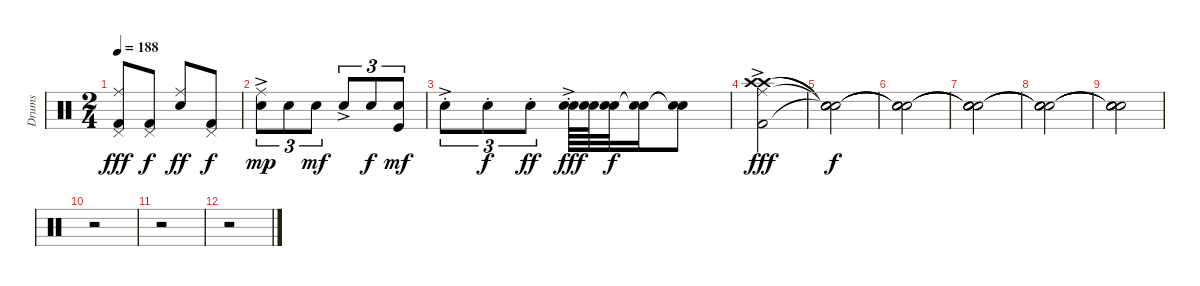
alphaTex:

\track ("Drums" "Drums") {instrument percussion}
\staff {score}
\articulation defaults
\ts (2 4)
\tempo 188
\clef neutral
\ks c
("Ride (middle)" "Pedal Hi-Hat (hit)" "Kick (hit) 2").8{dy fff} ("Pedal Hi-Hat (hit)" "Kick (hit) 2").8{dy f} ("Ride (middle)" "Snare (hit) 2").8{dy ff} ("Pedal Hi-Hat (hit)" "Kick (hit) 2").8{dy f} |
("Ride (middle)" "Snare (hit) 2"{ac}).8{tu (3 2) dy mp} "Snare (hit) 2".8{tu (3 2)} "Snare (hit) 2".8{tu (3 2) dy mf} "Snare (hit) 2"{ac}.8{tu (3 2)} "Snare (hit) 2".8{tu (3 2) dy f} ("Snare (hit) 2" "Kick (hit)").8{tu (3 2) dy mf} |
"Snare (hit) 2"{ac st}.8{tu (3 2)} "Snare (hit) 2"{st}.8{tu (3 2) dy f} "Snare (hit) 2"{st}.8{tu (3 2) dy ff} ("Snare (hit) 2"{ac st} "Snare (hit) 2").64{dy fff} ("Snare (hit) 2" "Snare (hit) 2").64 ("Snare (hit)"{t} "Snare (hit)"{t}).32{dy f} ("Snare (hit)"{t} "Snare (hit)"{t}).16 ("Snare (hit)"{t} "Snare (hit)"{t}).8 |
("Crash high (hit)" "Ride (middle)" "Crash high (hit)"{ac} "Kick (hit) 2").2{dy fff} |
("Snare (hit)"{t} "Snare (hit)"{t} "Snare (hit)"{t} "Snare (hit)"{t}).2{dy f} |
("Snare (hit)"{t} "Snare (hit)"{t} "Snare (hit)"{t} "Snare (hit)"{t}).2 |
("Snare (hit)"{t} "Snare (hit)"{t} "Snare (hit)"{t} "Snare (hit)"{t}).2 |
("Snare (hit)"{t} "Snare (hit)"{t} "Snare (hit)"{t} "Snare (hit)"{t}).2 |
("Snare (hit)"{t} "Snare (hit)"{t} "Snare (hit)"{t} "Snare (hit)"{t}).2 |
r.2 |
r.2 |
r.2
